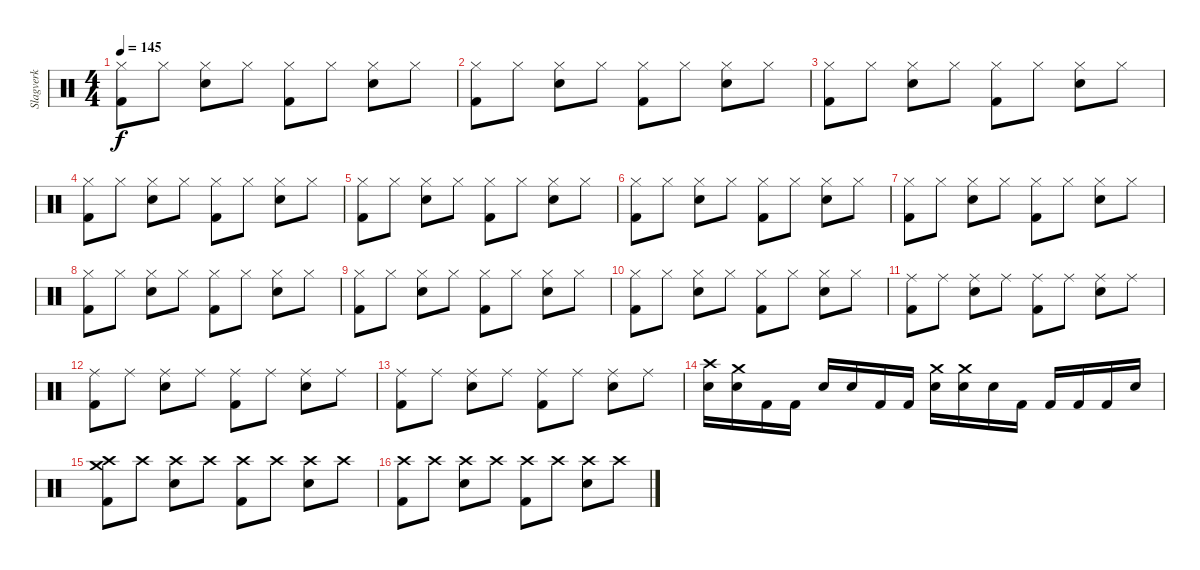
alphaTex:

\track ("Slagverk" "Slagverk") {instrument percussion}
\staff {score}
\articulation defaults
\ts (4 4)
\tempo 145
\clef neutral
\ks c
("Hi-Hat (closed)" "Kick (hit) 2").8{dy f} "Hi-Hat (closed)".8 ("Hi-Hat (closed)" "Snare (hit) 2").8 "Hi-Hat (closed)".8 ("Hi-Hat (closed)" "Kick (hit) 2").8 "Hi-Hat (closed)".8 ("Hi-Hat (closed)" "Snare (hit) 2").8 "Hi-Hat (closed)".8 |
("Hi-Hat (closed)" "Kick (hit) 2").8 "Hi-Hat (closed)".8 ("Hi-Hat (closed)" "Snare (hit) 2").8 "Hi-Hat (closed)".8 ("Hi-Hat (closed)" "Kick (hit) 2").8 "Hi-Hat (closed)".8 ("Hi-Hat (closed)" "Snare (hit) 2").8 "Hi-Hat (closed)".8 |
("Hi-Hat (closed)" "Kick (hit) 2").8 "Hi-Hat (closed)".8 ("Hi-Hat (closed)" "Snare (hit) 2").8 "Hi-Hat (closed)".8 ("Hi-Hat (closed)" "Kick (hit) 2").8 "Hi-Hat (closed)".8 ("Hi-Hat (closed)" "Snare (hit) 2").8 "Hi-Hat (closed)".8 |
("Hi-Hat (closed)" "Kick (hit) 2").8 "Hi-Hat (closed)".8 ("Hi-Hat (closed)" "Snare (hit) 2").8 "Hi-Hat (closed)".8 ("Hi-Hat (closed)" "Kick (hit) 2").8 "Hi-Hat (closed)".8 ("Hi-Hat (closed)" "Snare (hit) 2").8 "Hi-Hat (closed)".8 |
("Hi-Hat (closed)" "Kick (hit) 2").8 "Hi-Hat (closed)".8 ("Hi-Hat (closed)" "Snare (hit) 2").8 "Hi-Hat (closed)".8 ("Hi-Hat (closed)" "Kick (hit) 2").8 "Hi-Hat (closed)".8 ("Hi-Hat (closed)" "Snare (hit) 2").8 "Hi-Hat (closed)".8 |
("Hi-Hat (closed)" "Kick (hit) 2").8 "Hi-Hat (closed)".8 ("Hi-Hat (closed)" "Snare (hit) 2").8 "Hi-Hat (closed)".8 ("Hi-Hat (closed)" "Kick (hit) 2").8 "Hi-Hat (closed)".8 ("Hi-Hat (closed)" "Snare (hit) 2").8 "Hi-Hat (closed)".8 |
("Hi-Hat (closed)" "Kick (hit) 2").8 "Hi-Hat (closed)".8 ("Hi-Hat (closed)" "Snare (hit) 2").8 "Hi-Hat (closed)".8 ("Hi-Hat (closed)" "Kick (hit) 2").8 "Hi-Hat (closed)".8 ("Hi-Hat (closed)" "Snare (hit) 2").8 "Hi-Hat (closed)".8 |
("Hi-Hat (closed)" "Kick (hit) 2").8 "Hi-Hat (closed)".8 ("Hi-Hat (closed)" "Snare (hit) 2").8 "Hi-Hat (closed)".8 ("Hi-Hat (closed)" "Kick (hit) 2").8 "Hi-Hat (closed)".8 ("Hi-Hat (closed)" "Snare (hit) 2").8 "Hi-Hat (closed)".8 |
("Hi-Hat (closed)" "Kick (hit) 2").8 "Hi-Hat (closed)".8 ("Hi-Hat (closed)" "Snare (hit) 2").8 "Hi-Hat (closed)".8 ("Hi-Hat (closed)" "Kick (hit) 2").8 "Hi-Hat (closed)".8 ("Hi-Hat (closed)" "Snare (hit) 2").8 "Hi-Hat (closed)".8 |
("Hi-Hat (closed)" "Kick (hit) 2").8 "Hi-Hat (closed)".8 ("Hi-Hat (closed)" "Snare (hit) 2").8 "Hi-Hat (closed)".8 ("Hi-Hat (closed)" "Kick (hit) 2").8 "Hi-Hat (closed)".8 ("Hi-Hat (closed)" "Snare (hit) 2").8 "Hi-Hat (closed)".8 |
("Ride (middle)" "Kick (hit) 2").8 "Ride (middle)".8 ("Ride (middle)" "Snare (hit) 2").8 "Ride (middle)".8 ("Ride (middle)" "Kick (hit) 2").8 "Ride (middle)".8 ("Ride (middle)" "Snare (hit) 2").8 "Ride (middle)".8 |
("Ride (middle)" "Kick (hit) 2").8 "Ride (middle)".8 ("Ride (middle)" "Snare (hit) 2").8 "Ride (middle)".8 ("Ride (middle)" "Kick (hit) 2").8 "Ride (middle)".8 ("Ride (middle)" "Snare (hit) 2").8 "Ride (middle)".8 |
("Ride (middle)" "Kick (hit) 2").8 "Ride (middle)".8 ("Ride (middle)" "Snare (hit) 2").8 "Ride (middle)".8 ("Ride (middle)" "Kick (hit) 2").8 "Ride (middle)".8 ("Ride (middle)" "Snare (hit) 2").8 "Ride (middle)".8 |
("Crash high (hit)" "Snare (hit) 2").16 ("Crash medium (hit)" "Snare (hit) 2").16 "Kick (hit) 2".16 "Kick (hit) 2".16 "Snare (hit) 2".16 "Snare (hit) 2".16 "Kick (hit) 2".16 "Kick (hit) 2".16 ("Crash medium (hit)" "Snare (hit) 2").16 ("Crash medium (hit)" "Snare (hit) 2").16 "Snare (hit) 2".16 "Kick (hit) 2".16 "Kick (hit) 2".16 "Kick (hit) 2".16 "Kick (hit) 2".16 "Snare (hit) 2".16 |
("Crash high (hit)" "Crash medium (hit)" "Kick (hit) 2").8 "Crash high (hit)".8 ("Crash high (hit)" "Snare (hit) 2").8 "Crash high (hit)".8 ("Crash high (hit)" "Kick (hit) 2").8 "Crash high (hit)".8 ("Crash high (hit)" "Snare (hit) 2").8 "Crash high (hit)".8 |
("Crash high (hit)" "Kick (hit) 2").8 "Crash high (hit)".8 ("Crash high (hit)" "Snare (hit) 2").8 "Crash high (hit)".8 ("Crash high (hit)" "Kick (hit) 2").8 "Crash high (hit)".8 ("Crash high (hit)" "Snare (hit) 2").8 "Crash high (hit)".8
